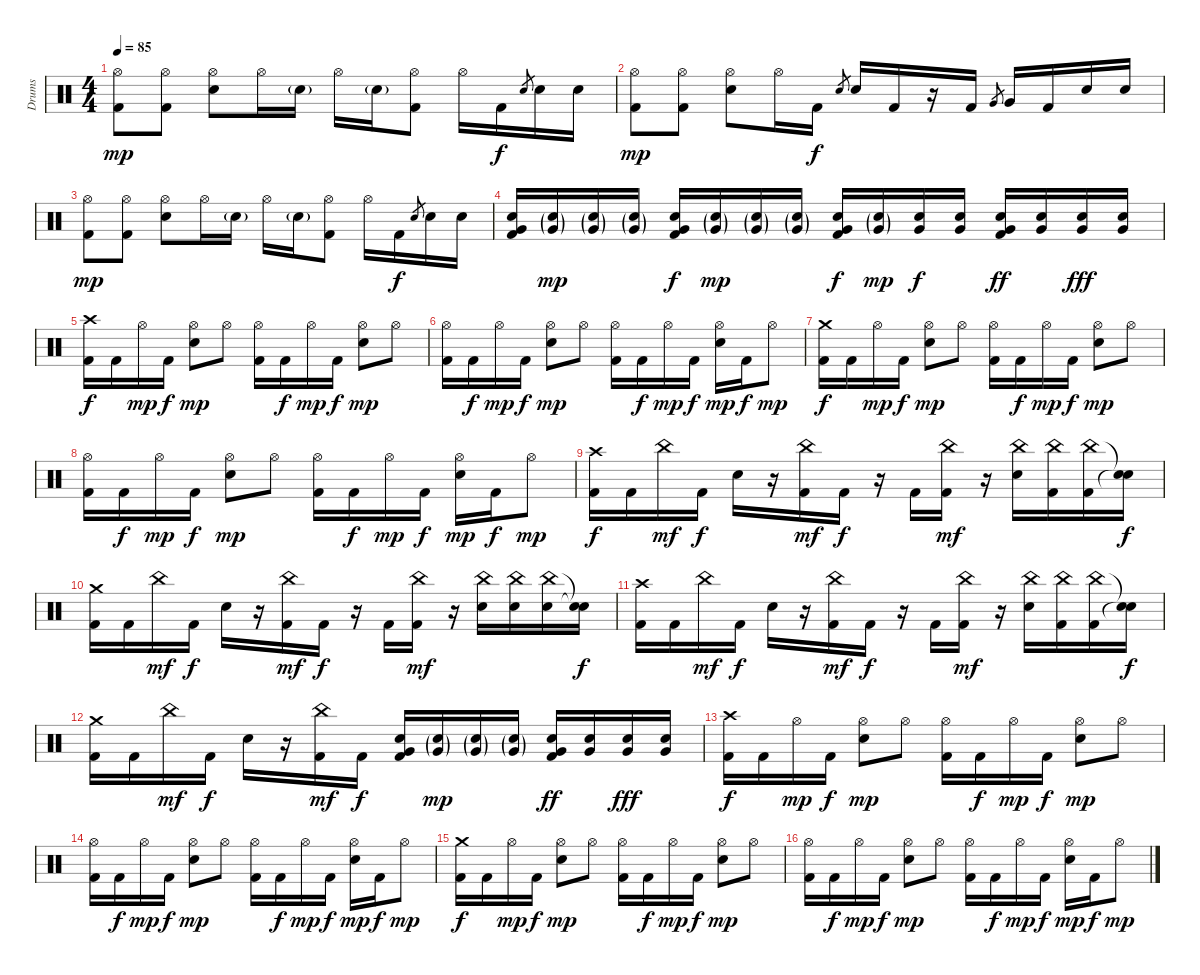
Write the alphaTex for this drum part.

\track ("Drums" "Drums") {instrument percussion}
\staff {score}
\articulation defaults
\ts (4 4)
\tempo 85
\clef neutral
\ks c
("Hi-Hat (open)" "Kick (hit) 2").8{dy mp} ("Hi-Hat (open)" "Kick (hit) 2").8 ("Hi-Hat (open)" "Electric Snare (hit)").8 "Hi-Hat (open)".16 "Electric Snare (hit)"{g}.16 "Hi-Hat (open)".16 "Electric Snare (hit)"{g}.16 ("Hi-Hat (open)" "Kick (hit) 2").8 "Hi-Hat (open)".16 "Kick (hit) 2".16{dy f} "Electric Snare (hit)".8{gr} "Electric Snare (hit)".16 "Electric Snare (hit)".16 |
("Hi-Hat (open)" "Kick (hit) 2").8{dy mp} ("Hi-Hat (open)" "Kick (hit) 2").8 ("Hi-Hat (open)" "Electric Snare (hit)").8 "Hi-Hat (open)".16 "Kick (hit) 2".16{dy f} "Electric Snare (hit)".8{gr} "Electric Snare (hit)".16 "Kick (hit) 2".16 r.16 "Kick (hit) 2".16 "Very Low Tom (hit)".8{gr} "Very Low Tom (hit)".16 "Kick (hit) 2".16 "Electric Snare (hit)".16 "Electric Snare (hit)".16 |
("Hi-Hat (open)" "Kick (hit) 2").8{dy mp} ("Hi-Hat (open)" "Kick (hit) 2").8 ("Hi-Hat (open)" "Electric Snare (hit)").8 "Hi-Hat (open)".16 "Electric Snare (hit)"{g}.16 "Hi-Hat (open)".16 "Electric Snare (hit)"{g}.16 ("Hi-Hat (open)" "Kick (hit) 2").8 "Hi-Hat (open)".16 "Kick (hit) 2".16{dy f} "Electric Snare (hit)".8{gr} "Electric Snare (hit)".16 "Electric Snare (hit)".16 |
("Electric Snare (hit)" "Very Low Tom (hit)" "Kick (hit) 2").16 ("Electric Snare (hit)"{g} "Very Low Tom (hit)"{g}).16{dy mp} ("Electric Snare (hit)"{g} "Very Low Tom (hit)"{g}).16 ("Electric Snare (hit)"{g} "Very Low Tom (hit)"{g}).16 ("Electric Snare (hit)" "Very Low Tom (hit)" "Kick (hit) 2").16{dy f} ("Electric Snare (hit)"{g} "Very Low Tom (hit)"{g}).16{dy mp} ("Electric Snare (hit)"{g} "Very Low Tom (hit)"{g}).16 ("Electric Snare (hit)"{g} "Very Low Tom (hit)"{g}).16 ("Electric Snare (hit)" "Very Low Tom (hit)" "Kick (hit) 2").16{dy f} ("Electric Snare (hit)"{g} "Very Low Tom (hit)"{g}).16{dy mp} ("Electric Snare (hit)" "Very Low Tom (hit)").16{dy f} ("Electric Snare (hit)" "Very Low Tom (hit)").16 ("Electric Snare (hit)" "Very Low Tom (hit)" "Kick (hit) 2").16{dy ff} ("Electric Snare (hit)" "Very Low Tom (hit)").16 ("Electric Snare (hit)" "Very Low Tom (hit)").16{dy fff} ("Electric Snare (hit)" "Very Low Tom (hit)").16 |
("Crash high (hit)" "Kick (hit) 2").16{dy f} "Kick (hit) 2".16 "Hi-Hat (open)".16{dy mp} "Kick (hit) 2".16{dy f} ("Hi-Hat (open)" "Electric Snare (hit)").8{dy mp} "Hi-Hat (open)".8 ("Hi-Hat (open)" "Kick (hit) 2").16 "Kick (hit) 2".16{dy f} "Hi-Hat (open)".16{dy mp} "Kick (hit) 2".16{dy f} ("Hi-Hat (open)" "Electric Snare (hit)").8{dy mp} "Hi-Hat (open)".8 |
("Hi-Hat (open)" "Kick (hit) 2").16 "Kick (hit) 2".16{dy f} "Hi-Hat (open)".16{dy mp} "Kick (hit) 2".16{dy f} ("Hi-Hat (open)" "Electric Snare (hit)").8{dy mp} "Hi-Hat (open)".8 ("Hi-Hat (open)" "Kick (hit) 2").16 "Kick (hit) 2".16{dy f} "Hi-Hat (open)".16{dy mp} "Kick (hit) 2".16{dy f} ("Hi-Hat (open)" "Electric Snare (hit)").16{dy mp} "Kick (hit) 2".16{dy f} "Hi-Hat (open)".8{dy mp} |
("Crash medium (hit)" "Kick (hit) 2").16{dy f} "Kick (hit) 2".16 "Hi-Hat (open)".16{dy mp} "Kick (hit) 2".16{dy f} ("Hi-Hat (open)" "Electric Snare (hit)").8{dy mp} "Hi-Hat (open)".8 ("Hi-Hat (open)" "Kick (hit) 2").16 "Kick (hit) 2".16{dy f} "Hi-Hat (open)".16{dy mp} "Kick (hit) 2".16{dy f} ("Hi-Hat (open)" "Electric Snare (hit)").8{dy mp} "Hi-Hat (open)".8 |
("Hi-Hat (open)" "Kick (hit) 2").16 "Kick (hit) 2".16{dy f} "Hi-Hat (open)".16{dy mp} "Kick (hit) 2".16{dy f} ("Hi-Hat (open)" "Electric Snare (hit)").8{dy mp} "Hi-Hat (open)".8 ("Hi-Hat (open)" "Kick (hit) 2").16 "Kick (hit) 2".16{dy f} "Hi-Hat (open)".16{dy mp} "Kick (hit) 2".16{dy f} ("Hi-Hat (open)" "Electric Snare (hit)").16{dy mp} "Kick (hit) 2".16{dy f} "Hi-Hat (open)".8{dy mp} |
("Crash high (hit)" "Kick (hit) 2").16{dy f} "Kick (hit) 2".16 "China (hit)".16{dy mf} "Kick (hit) 2".16{dy f} "Electric Snare (hit)".16 r.16 ("China (hit)" "Kick (hit) 2").16{dy mf} "Kick (hit) 2".16{dy f} r.16 "Kick (hit) 2".16 ("China (hit)" "Kick (hit) 2").16{dy mf} r.16 ("China (hit)" "Electric Snare (hit)").16 ("China (hit)" "Kick (hit) 2").16 ("China (hit)" "Kick (hit) 2").16 ("Snare (hit)"{t} "Snare (hit)"{t}).16{dy f} |
("Crash medium (hit)" "Kick (hit) 2").16 "Kick (hit) 2".16 "China (hit)".16{dy mf} "Kick (hit) 2".16{dy f} "Electric Snare (hit)".16 r.16 ("China (hit)" "Kick (hit) 2").16{dy mf} "Kick (hit) 2".16{dy f} r.16 "Kick (hit) 2".16 ("China (hit)" "Kick (hit) 2").16{dy mf} r.16 ("China (hit)" "Electric Snare (hit)").16 ("China (hit)" "Electric Snare (hit)").16 ("China (hit)" "Electric Snare (hit)").16 ("Snare (hit)"{t} "Snare (hit)"{t}).16{dy f} |
("Crash high (hit)" "Kick (hit) 2").16 "Kick (hit) 2".16 "China (hit)".16{dy mf} "Kick (hit) 2".16{dy f} "Electric Snare (hit)".16 r.16 ("China (hit)" "Kick (hit) 2").16{dy mf} "Kick (hit) 2".16{dy f} r.16 "Kick (hit) 2".16 ("China (hit)" "Kick (hit) 2").16{dy mf} r.16 ("China (hit)" "Electric Snare (hit)").16 ("China (hit)" "Kick (hit) 2").16 ("China (hit)" "Kick (hit) 2").16 ("Snare (hit)"{t} "Snare (hit)"{t}).16{dy f} |
("Crash medium (hit)" "Kick (hit) 2").16 "Kick (hit) 2".16 "China (hit)".16{dy mf} "Kick (hit) 2".16{dy f} "Electric Snare (hit)".16 r.16 ("China (hit)" "Kick (hit) 2").16{dy mf} "Kick (hit) 2".16{dy f} ("Electric Snare (hit)" "Very Low Tom (hit)" "Kick (hit) 2").16 ("Electric Snare (hit)"{g} "Very Low Tom (hit)"{g}).16{dy mp} ("Electric Snare (hit)"{g} "Very Low Tom (hit)"{g}).16 ("Electric Snare (hit)"{g} "Very Low Tom (hit)"{g}).16 ("Electric Snare (hit)" "Very Low Tom (hit)" "Kick (hit) 2").16{dy ff} ("Electric Snare (hit)" "Very Low Tom (hit)").16 ("Electric Snare (hit)" "Very Low Tom (hit)").16{dy fff} ("Electric Snare (hit)" "Very Low Tom (hit)").16 |
("Crash high (hit)" "Kick (hit) 2").16{dy f} "Kick (hit) 2".16 "Hi-Hat (open)".16{dy mp} "Kick (hit) 2".16{dy f} ("Hi-Hat (open)" "Electric Snare (hit)").8{dy mp} "Hi-Hat (open)".8 ("Hi-Hat (open)" "Kick (hit) 2").16 "Kick (hit) 2".16{dy f} "Hi-Hat (open)".16{dy mp} "Kick (hit) 2".16{dy f} ("Hi-Hat (open)" "Electric Snare (hit)").8{dy mp} "Hi-Hat (open)".8 |
("Hi-Hat (open)" "Kick (hit) 2").16 "Kick (hit) 2".16{dy f} "Hi-Hat (open)".16{dy mp} "Kick (hit) 2".16{dy f} ("Hi-Hat (open)" "Electric Snare (hit)").8{dy mp} "Hi-Hat (open)".8 ("Hi-Hat (open)" "Kick (hit) 2").16 "Kick (hit) 2".16{dy f} "Hi-Hat (open)".16{dy mp} "Kick (hit) 2".16{dy f} ("Hi-Hat (open)" "Electric Snare (hit)").16{dy mp} "Kick (hit) 2".16{dy f} "Hi-Hat (open)".8{dy mp} |
("Crash medium (hit)" "Kick (hit) 2").16{dy f} "Kick (hit) 2".16 "Hi-Hat (open)".16{dy mp} "Kick (hit) 2".16{dy f} ("Hi-Hat (open)" "Electric Snare (hit)").8{dy mp} "Hi-Hat (open)".8 ("Hi-Hat (open)" "Kick (hit) 2").16 "Kick (hit) 2".16{dy f} "Hi-Hat (open)".16{dy mp} "Kick (hit) 2".16{dy f} ("Hi-Hat (open)" "Electric Snare (hit)").8{dy mp} "Hi-Hat (open)".8 |
("Hi-Hat (open)" "Kick (hit) 2").16 "Kick (hit) 2".16{dy f} "Hi-Hat (open)".16{dy mp} "Kick (hit) 2".16{dy f} ("Hi-Hat (open)" "Electric Snare (hit)").8{dy mp} "Hi-Hat (open)".8 ("Hi-Hat (open)" "Kick (hit) 2").16 "Kick (hit) 2".16{dy f} "Hi-Hat (open)".16{dy mp} "Kick (hit) 2".16{dy f} ("Hi-Hat (open)" "Electric Snare (hit)").16{dy mp} "Kick (hit) 2".16{dy f} "Hi-Hat (open)".8{dy mp}
